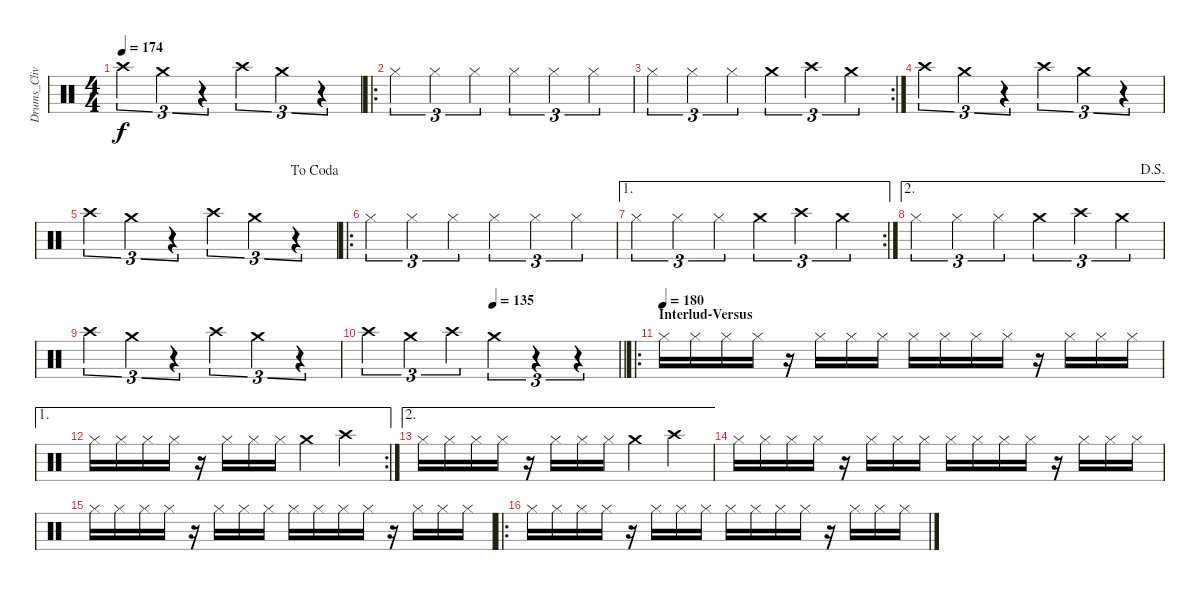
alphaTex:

\track ("Drums_CliveBurr" "Drums_Cliv") {instrument percussion}
\staff {score}
\articulation defaults
\ts (4 4)
\tempo 174
\clef neutral
\ks c "Crash high (hit)".4{tu (3 2) dy f} "Crash medium (hit)".4{tu (3 2)}
r.4{tu (3 2)} "Crash high (hit)".4{tu (3 2)} "Crash medium (hit)".4{tu (3 2)} r.4{tu (3 2)} |
\ro "Hi-Hat (closed)".4{tu (3 2)} "Hi-Hat (closed)".4{tu (3 2)} "Hi-Hat (closed)".4{tu (3 2)} "Hi-Hat (closed)".4{tu (3 2)} "Hi-Hat (closed)".4{tu (3 2)} "Hi-Hat (closed)".4{tu (3 2)}
|
\rc 2 "Hi-Hat (closed)".4{tu (3 2)} "Hi-Hat (closed)".4{tu (3 2)} "Hi-Hat (closed)".4{tu (3 2)} "Crash medium (hit)".4{tu (3 2)} "Crash high (hit)".4{tu (3 2)} "Crash medium (hit)".4{tu (3 2)}
|
"Crash high (hit)".4{tu (3 2)} "Crash medium (hit)".4{tu (3 2)} r.4{tu (3 2)} "Crash high (hit)".4{tu (3 2)} "Crash medium (hit)".4{tu (3 2)} r.4{tu (3 2)} |
\jump dacoda "Crash high (hit)".4{tu (3 2)} "Crash medium (hit)".4{tu (3 2)}
r.4{tu (3 2)} "Crash high (hit)".4{tu (3 2)} "Crash medium (hit)".4{tu (3 2)} r.4{tu (3 2)} |
\ro "Hi-Hat (closed)".4{tu (3 2)} "Hi-Hat (closed)".4{tu (3 2)} "Hi-Hat (closed)".4{tu (3 2)} "Hi-Hat (closed)".4{tu (3 2)} "Hi-Hat (closed)".4{tu (3 2)} "Hi-Hat (closed)".4{tu (3 2)}
|
\ae 1
\rc 2 "Hi-Hat (closed)".4{tu (3 2)} "Hi-Hat (closed)".4{tu (3 2)} "Hi-Hat (closed)".4{tu (3 2)} "Crash medium (hit)".4{tu (3 2)} "Crash high (hit)".4{tu (3 2)} "Crash medium (hit)".4{tu (3 2)}
|
\ae 2
\jump dalsegno "Hi-Hat (closed)".4{tu (3 2)} "Hi-Hat (closed)".4{tu (3 2)} "Hi-Hat (closed)".4{tu (3 2)} "Crash medium (hit)".4{tu (3 2)} "Crash high (hit)".4{tu (3 2)} "Crash medium (hit)".4{tu (3 2)}
|
"Crash high (hit)".4{tu (3 2)} "Crash medium (hit)".4{tu (3 2)} r.4{tu (3 2)} "Crash high (hit)".4{tu (3 2)} "Crash medium (hit)".4{tu (3 2)} r.4{tu (3 2)} |
\tempo (135 0.5)
\barLineRight lightlight "Crash high (hit)".4{tu (3 2)} "Crash medium (hit)".4{tu (3 2)} "Crash high (hit)".4{tu (3 2)} "Crash medium (hit)".4{tu (3 2)}
r.4{tu (3 2)} r.4{tu (3 2)} |
\ro
\section ("" "Interlud-Versus")
\tempo (180)
"Hi-Hat (closed)".16 "Hi-Hat (closed)".16 "Hi-Hat (closed)".16 "Hi-Hat (closed)".16 r.16 "Hi-Hat (closed)".16 "Hi-Hat (closed)".16 "Hi-Hat (closed)".16 "Hi-Hat (closed)".16 "Hi-Hat (closed)".16 "Hi-Hat (closed)".16 "Hi-Hat (closed)".16 r.16 "Hi-Hat (closed)".16 "Hi-Hat (closed)".16 "Hi-Hat (closed)".16 |
\ae 1
\rc 2 "Hi-Hat (closed)".16 "Hi-Hat (closed)".16 "Hi-Hat (closed)".16 "Hi-Hat (closed)".16
r.16 "Hi-Hat (closed)".16 "Hi-Hat (closed)".16 "Hi-Hat (closed)".16 "Crash medium (hit)".4 "Crash high (hit)".4 |
\ae 2 "Hi-Hat (closed)".16 "Hi-Hat (closed)".16 "Hi-Hat (closed)".16 "Hi-Hat (closed)".16
r.16 "Hi-Hat (closed)".16 "Hi-Hat (closed)".16 "Hi-Hat (closed)".16 "Crash medium (hit)".4 "Crash high (hit)".4 |
"Hi-Hat (closed)".16 "Hi-Hat (closed)".16 "Hi-Hat (closed)".16 "Hi-Hat (closed)".16 r.16 "Hi-Hat (closed)".16 "Hi-Hat (closed)".16 "Hi-Hat (closed)".16 "Hi-Hat (closed)".16 "Hi-Hat (closed)".16 "Hi-Hat (closed)".16 "Hi-Hat (closed)".16 r.16 "Hi-Hat (closed)".16 "Hi-Hat (closed)".16 "Hi-Hat (closed)".16 |
"Hi-Hat (closed)".16 "Hi-Hat (closed)".16 "Hi-Hat (closed)".16 "Hi-Hat (closed)".16 r.16 "Hi-Hat (closed)".16 "Hi-Hat (closed)".16 "Hi-Hat (closed)".16 "Hi-Hat (closed)".16 "Hi-Hat (closed)".16 "Hi-Hat (closed)".16 "Hi-Hat (closed)".16 r.16 "Hi-Hat (closed)".16 "Hi-Hat (closed)".16 "Hi-Hat (closed)".16 |
\ro "Hi-Hat (closed)".16 "Hi-Hat (closed)".16 "Hi-Hat (closed)".16 "Hi-Hat (closed)".16
r.16 "Hi-Hat (closed)".16 "Hi-Hat (closed)".16 "Hi-Hat (closed)".16 "Hi-Hat (closed)".16 "Hi-Hat (closed)".16 "Hi-Hat (closed)".16 "Hi-Hat (closed)".16 r.16 "Hi-Hat (closed)".16 "Hi-Hat (closed)".16 "Hi-Hat (closed)".16
